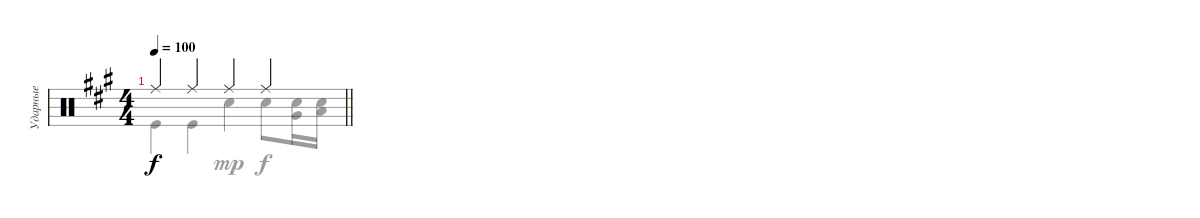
\track ("Ударные" "Ударные") {instrument percussion}
\staff {score}
\articulation defaults
\voice
\ts (4 4)
\tempo 100
\clef neutral
\barLineRight lightlight
\ks f#minor "Ride (middle)".4{dy f} "Ride (middle)".4 "Ride (middle)".4 "Ride (middle)".4
\voice
\clef neutral
\barLineRight lightlight
\ks f#minor "Kick (hit)".4{dy f} "Kick (hit)".4 "Snare (hit) 2".4{dy mp} "Snare (hit) 2".8{dy f}
("Snare (hit) 2" "Very Low Tom (hit)").16 ("Snare (hit) 2" "Low Floor Tom (hit)").16
